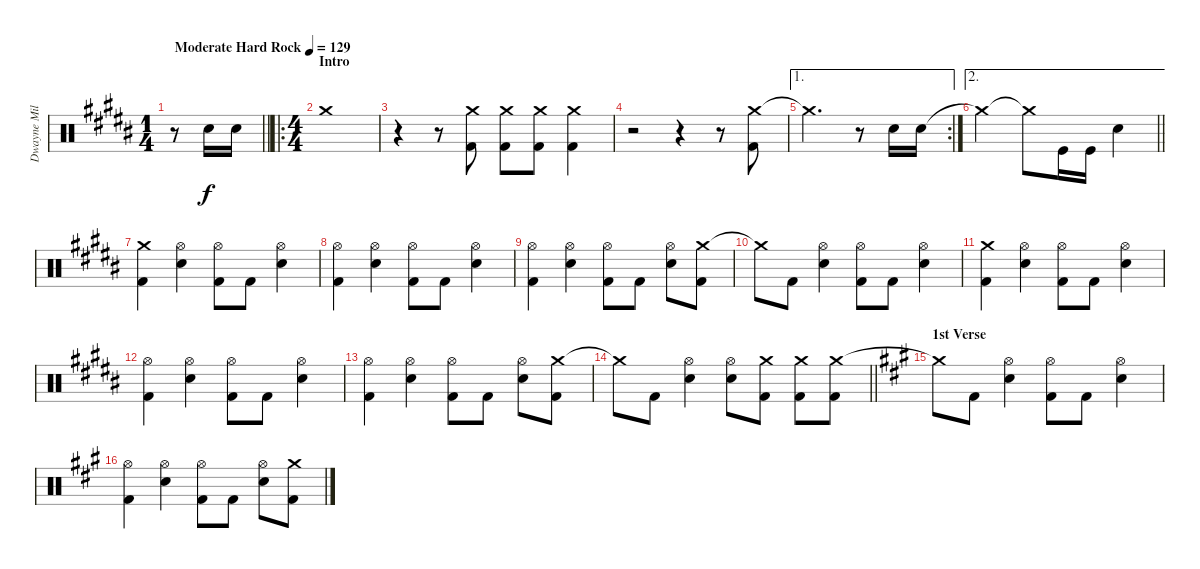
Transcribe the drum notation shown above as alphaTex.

\track ("Dwayne Miller" "Dwayne Mil") {instrument percussion}
\staff {score}
\articulation defaults
\ts (1 4)
\tempo (129 "Moderate Hard Rock")
\clef neutral
\barLineRight lightlight
\ks b
r.8{dy f} "Snare (hit) 2".16 "Snare (hit) 2".16 |
\ro
\ts (4 4)
\section ("" "Intro")
"Crash medium (hit)".1 |
r.4 r.8 ("Crash medium (hit)" "Kick (hit) 2").8 ("Crash medium (hit)" "Kick (hit) 2").8 ("Crash medium (hit)" "Kick (hit) 2").8 ("Crash medium (hit)" "Kick (hit) 2").4 |
r.2 r.4 r.8 ("Crash medium (hit)" "Kick (hit) 2").8 |
\ae 1
\rc 2 "Crash medium (hit)"{t}.2{d}
r.8 "Snare (hit) 2".16 "Snare (hit) 2".16 |
\ae 2
\barLineRight lightlight "Crash medium (hit)"{t}.2 "Crash medium (hit)"{t}.8 "Kick (hit)".16 "Kick (hit)".16 "Snare (hit) 2".4
|
("Crash medium (hit)" "Kick (hit) 2").4 ("Hi-Hat (open)" "Snare (hit) 2").4 ("Hi-Hat (open)" "Kick (hit) 2").8 "Kick (hit) 2".8 ("Hi-Hat (open)" "Snare (hit) 2").4 |
("Hi-Hat (open)" "Kick (hit) 2").4 ("Hi-Hat (open)" "Snare (hit) 2").4 ("Hi-Hat (open)" "Kick (hit) 2").8 "Kick (hit) 2".8 ("Hi-Hat (open)" "Snare (hit) 2").4 |
("Hi-Hat (open)" "Kick (hit) 2").4 ("Hi-Hat (open)" "Snare (hit) 2").4 ("Hi-Hat (open)" "Kick (hit) 2").8 "Kick (hit) 2".8 ("Hi-Hat (open)" "Snare (hit) 2").8 ("Crash medium (hit)" "Kick (hit) 2").8 |
"Crash medium (hit)"{t}.8 "Kick (hit) 2".8 ("Hi-Hat (open)" "Snare (hit) 2").4 ("Hi-Hat (open)" "Kick (hit) 2").8 "Kick (hit) 2".8 ("Hi-Hat (open)" "Snare (hit) 2").4 |
("Crash medium (hit)" "Kick (hit) 2").4 ("Hi-Hat (open)" "Snare (hit) 2").4 ("Hi-Hat (open)" "Kick (hit) 2").8 "Kick (hit) 2".8 ("Hi-Hat (open)" "Snare (hit) 2").4 |
("Hi-Hat (open)" "Kick (hit) 2").4 ("Hi-Hat (open)" "Snare (hit) 2").4 ("Hi-Hat (open)" "Kick (hit) 2").8 "Kick (hit) 2".8 ("Hi-Hat (open)" "Snare (hit) 2").4 |
("Hi-Hat (open)" "Kick (hit) 2").4 ("Hi-Hat (open)" "Snare (hit) 2").4 ("Hi-Hat (open)" "Kick (hit) 2").8 "Kick (hit) 2".8 ("Hi-Hat (open)" "Snare (hit) 2").8 ("Crash medium (hit)" "Kick (hit) 2").8 |
\barLineRight lightlight "Crash medium (hit)"{t}.8 "Kick (hit) 2".8
("Hi-Hat (open)" "Snare (hit) 2").4 ("Hi-Hat (open)" "Snare (hit) 2").8 ("Crash medium (hit)" "Kick (hit) 2").8 ("Crash medium (hit)" "Kick (hit) 2").8 ("Crash medium (hit)" "Kick (hit) 2").8 |
\section ("" "1st Verse")
\ks a "Crash medium (hit)"{t}.8 "Kick (hit) 2".8
("Hi-Hat (open)" "Snare (hit) 2").4 ("Hi-Hat (open)" "Kick (hit) 2").8 "Kick (hit) 2".8 ("Hi-Hat (open)" "Snare (hit) 2").4 |
("Hi-Hat (open)" "Kick (hit) 2").4 ("Hi-Hat (open)" "Snare (hit) 2").4 ("Hi-Hat (open)" "Kick (hit) 2").8 "Kick (hit) 2".8 ("Hi-Hat (open)" "Snare (hit) 2").8 ("Crash medium (hit)" "Kick (hit) 2").8
